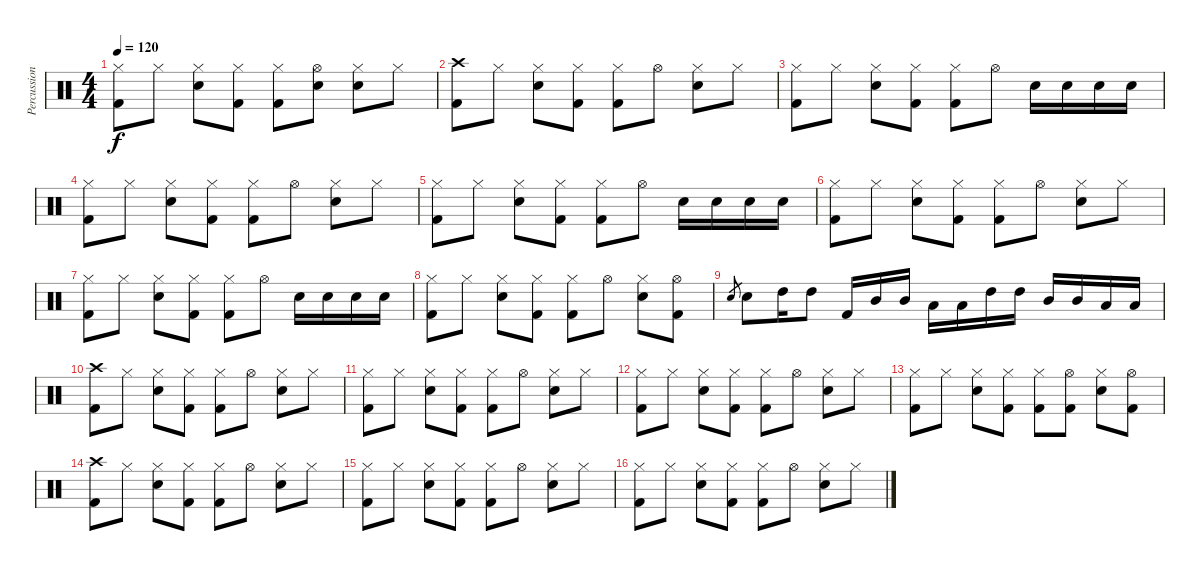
\track ("Percussion" "Percussion") {instrument percussion}
\staff {score}
\articulation defaults
\ts (4 4)
\tempo 120
\clef neutral
\ks c
("Hi-Hat (closed)" "Kick (hit) 2").8{dy f} "Hi-Hat (closed)".8 ("Hi-Hat (closed)" "Electric Snare (hit)").8 ("Hi-Hat (closed)" "Kick (hit) 2").8 ("Hi-Hat (closed)" "Kick (hit) 2").8 ("Hi-Hat (open)" "Electric Snare (hit)").8 ("Hi-Hat (closed)" "Electric Snare (hit)").8 "Hi-Hat (closed)".8 |
("Crash high (hit)" "Kick (hit) 2").8 "Hi-Hat (closed)".8 ("Hi-Hat (closed)" "Electric Snare (hit)").8 ("Hi-Hat (closed)" "Kick (hit) 2").8 ("Hi-Hat (closed)" "Kick (hit) 2").8 "Hi-Hat (open)".8 ("Hi-Hat (closed)" "Electric Snare (hit)").8 "Hi-Hat (closed)".8 |
("Hi-Hat (closed)" "Kick (hit) 2").8 "Hi-Hat (closed)".8 ("Hi-Hat (closed)" "Electric Snare (hit)").8 ("Hi-Hat (closed)" "Kick (hit) 2").8 ("Hi-Hat (closed)" "Kick (hit) 2").8 "Hi-Hat (open)".8 "Electric Snare (hit)".16 "Electric Snare (hit)".16 "Electric Snare (hit)".16 "Electric Snare (hit)".16 |
("Hi-Hat (closed)" "Kick (hit) 2").8 "Hi-Hat (closed)".8 ("Hi-Hat (closed)" "Electric Snare (hit)").8 ("Hi-Hat (closed)" "Kick (hit) 2").8 ("Hi-Hat (closed)" "Kick (hit) 2").8 "Hi-Hat (open)".8 ("Hi-Hat (closed)" "Electric Snare (hit)").8 "Hi-Hat (closed)".8 |
("Hi-Hat (closed)" "Kick (hit) 2").8 "Hi-Hat (closed)".8 ("Hi-Hat (closed)" "Electric Snare (hit)").8 ("Hi-Hat (closed)" "Kick (hit) 2").8 ("Hi-Hat (closed)" "Kick (hit) 2").8 "Hi-Hat (open)".8 "Electric Snare (hit)".16 "Electric Snare (hit)".16 "Electric Snare (hit)".16 "Electric Snare (hit)".16 |
("Hi-Hat (closed)" "Kick (hit) 2").8 "Hi-Hat (closed)".8 ("Hi-Hat (closed)" "Electric Snare (hit)").8 ("Hi-Hat (closed)" "Kick (hit) 2").8 ("Hi-Hat (closed)" "Kick (hit) 2").8 "Hi-Hat (open)".8 ("Hi-Hat (closed)" "Electric Snare (hit)").8 "Hi-Hat (closed)".8 |
("Hi-Hat (closed)" "Kick (hit) 2").8 "Hi-Hat (closed)".8 ("Hi-Hat (closed)" "Electric Snare (hit)").8 ("Hi-Hat (closed)" "Kick (hit) 2").8 ("Hi-Hat (closed)" "Kick (hit) 2").8 "Hi-Hat (open)".8 "Electric Snare (hit)".16 "Electric Snare (hit)".16 "Electric Snare (hit)".16 "Electric Snare (hit)".16 |
("Hi-Hat (closed)" "Kick (hit) 2").8 "Hi-Hat (closed)".8 ("Hi-Hat (closed)" "Electric Snare (hit)").8 ("Hi-Hat (closed)" "Kick (hit) 2").8 ("Hi-Hat (closed)" "Kick (hit) 2").8 "Hi-Hat (open)".8 ("Hi-Hat (closed)" "Electric Snare (hit)").8 ("Hi-Hat (open)" "Kick (hit) 2").8 |
"Electric Snare (hit)".8{gr} "Electric Snare (hit)".8 "High Tom (hit)".16 "High Tom (hit)".8 "Kick (hit) 2".16 "Mid Tom (hit)".16 "Mid Tom (hit)".16 "Low Tom (hit)".16 "Low Tom (hit)".16 "High Tom (hit)".16 "High Tom (hit)".16 "Mid Tom (hit)".16 "Mid Tom (hit)".16 "Low Tom (hit)".16 "Low Tom (hit)".16 |
("Crash high (hit)" "Kick (hit) 2").8 "Hi-Hat (closed)".8 ("Hi-Hat (closed)" "Electric Snare (hit)").8 ("Hi-Hat (closed)" "Kick (hit) 2").8 ("Hi-Hat (closed)" "Kick (hit) 2").8 "Hi-Hat (open)".8 ("Hi-Hat (closed)" "Electric Snare (hit)").8 "Hi-Hat (closed)".8 |
("Hi-Hat (closed)" "Kick (hit) 2").8 "Hi-Hat (closed)".8 ("Hi-Hat (closed)" "Electric Snare (hit)").8 ("Hi-Hat (closed)" "Kick (hit) 2").8 ("Hi-Hat (closed)" "Kick (hit) 2").8 "Hi-Hat (open)".8 ("Hi-Hat (closed)" "Electric Snare (hit)").8 "Hi-Hat (closed)".8 |
("Hi-Hat (closed)" "Kick (hit) 2").8 "Hi-Hat (closed)".8 ("Hi-Hat (closed)" "Electric Snare (hit)").8 ("Hi-Hat (closed)" "Kick (hit) 2").8 ("Hi-Hat (closed)" "Kick (hit) 2").8 "Hi-Hat (open)".8 ("Hi-Hat (closed)" "Electric Snare (hit)").8 "Hi-Hat (closed)".8 |
("Hi-Hat (closed)" "Kick (hit) 2").8 "Hi-Hat (closed)".8 ("Hi-Hat (closed)" "Electric Snare (hit)").8 ("Hi-Hat (closed)" "Kick (hit) 2").8 ("Hi-Hat (closed)" "Kick (hit) 2").8 ("Hi-Hat (open)" "Kick (hit) 2").8 ("Hi-Hat (closed)" "Electric Snare (hit)").8 ("Hi-Hat (open)" "Kick (hit) 2").8 |
("Crash high (hit)" "Kick (hit) 2").8 "Hi-Hat (closed)".8 ("Hi-Hat (closed)" "Electric Snare (hit)").8 ("Hi-Hat (closed)" "Kick (hit) 2").8 ("Hi-Hat (closed)" "Kick (hit) 2").8 "Hi-Hat (open)".8 ("Hi-Hat (closed)" "Electric Snare (hit)").8 "Hi-Hat (closed)".8 |
("Hi-Hat (closed)" "Kick (hit) 2").8 "Hi-Hat (closed)".8 ("Hi-Hat (closed)" "Electric Snare (hit)").8 ("Hi-Hat (closed)" "Kick (hit) 2").8 ("Hi-Hat (closed)" "Kick (hit) 2").8 "Hi-Hat (open)".8 ("Hi-Hat (closed)" "Electric Snare (hit)").8 "Hi-Hat (closed)".8 |
("Hi-Hat (closed)" "Kick (hit) 2").8 "Hi-Hat (closed)".8 ("Hi-Hat (closed)" "Electric Snare (hit)").8 ("Hi-Hat (closed)" "Kick (hit) 2").8 ("Hi-Hat (closed)" "Kick (hit) 2").8 "Hi-Hat (open)".8 ("Hi-Hat (closed)" "Electric Snare (hit)").8 "Hi-Hat (closed)".8
